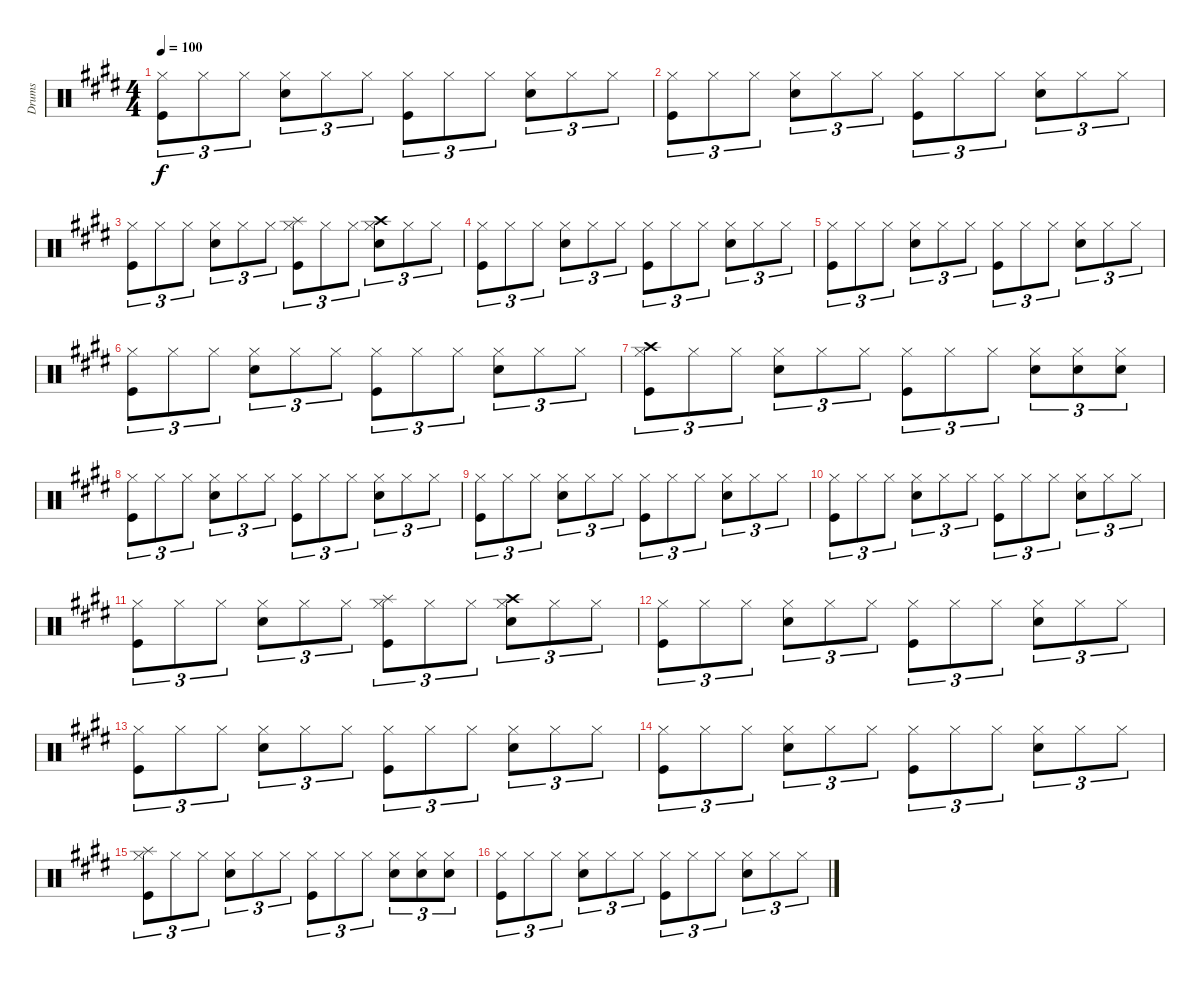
\track ("Drums" "Drums") {instrument percussion}
\staff {score}
\articulation defaults
\ts (4 4)
\tempo 100
\clef neutral
\ks e
("Hi-Hat (closed)" "Kick (hit)").8{tu (3 2) dy f} "Hi-Hat (closed)".8{tu (3 2)} "Hi-Hat (closed)".8{tu (3 2)} ("Hi-Hat (closed)" "Snare (hit) 2").8{tu (3 2)} "Hi-Hat (closed)".8{tu (3 2)} "Hi-Hat (closed)".8{tu (3 2)} ("Hi-Hat (closed)" "Kick (hit)").8{tu (3 2)} "Hi-Hat (closed)".8{tu (3 2)} "Hi-Hat (closed)".8{tu (3 2)} ("Hi-Hat (closed)" "Snare (hit) 2").8{tu (3 2)} "Hi-Hat (closed)".8{tu (3 2)} "Hi-Hat (closed)".8{tu (3 2)} |
\ks c#minor
("Hi-Hat (closed)" "Kick (hit)").8{tu (3 2)} "Hi-Hat (closed)".8{tu (3 2)} "Hi-Hat (closed)".8{tu (3 2)} ("Hi-Hat (closed)" "Snare (hit) 2").8{tu (3 2)} "Hi-Hat (closed)".8{tu (3 2)} "Hi-Hat (closed)".8{tu (3 2)} ("Hi-Hat (closed)" "Kick (hit)").8{tu (3 2)} "Hi-Hat (closed)".8{tu (3 2)} "Hi-Hat (closed)".8{tu (3 2)} ("Hi-Hat (closed)" "Snare (hit) 2").8{tu (3 2)} "Hi-Hat (closed)".8{tu (3 2)} "Hi-Hat (closed)".8{tu (3 2)} |
\ks e
("Hi-Hat (closed)" "Kick (hit)").8{tu (3 2)} "Hi-Hat (closed)".8{tu (3 2)} "Hi-Hat (closed)".8{tu (3 2)} ("Hi-Hat (closed)" "Snare (hit) 2").8{tu (3 2)} "Hi-Hat (closed)".8{tu (3 2)} "Hi-Hat (closed)".8{tu (3 2)} ("Hi-Hat (closed)" "Splash (hit)" "Kick (hit)").8{tu (3 2)} "Hi-Hat (closed)".8{tu (3 2)} "Hi-Hat (closed)".8{tu (3 2)} ("Hi-Hat (closed)" "Crash high (hit)" "Snare (hit) 2").8{tu (3 2)} "Hi-Hat (closed)".8{tu (3 2)} "Hi-Hat (closed)".8{tu (3 2)} |
("Hi-Hat (closed)" "Kick (hit)").8{tu (3 2)} "Hi-Hat (closed)".8{tu (3 2)} "Hi-Hat (closed)".8{tu (3 2)} ("Hi-Hat (closed)" "Snare (hit) 2").8{tu (3 2)} "Hi-Hat (closed)".8{tu (3 2)} "Hi-Hat (closed)".8{tu (3 2)} ("Hi-Hat (closed)" "Kick (hit)").8{tu (3 2)} "Hi-Hat (closed)".8{tu (3 2)} "Hi-Hat (closed)".8{tu (3 2)} ("Hi-Hat (closed)" "Snare (hit) 2").8{tu (3 2)} "Hi-Hat (closed)".8{tu (3 2)} "Hi-Hat (closed)".8{tu (3 2)} |
\ks c#minor
("Hi-Hat (closed)" "Kick (hit)").8{tu (3 2)} "Hi-Hat (closed)".8{tu (3 2)} "Hi-Hat (closed)".8{tu (3 2)} ("Hi-Hat (closed)" "Snare (hit) 2").8{tu (3 2)} "Hi-Hat (closed)".8{tu (3 2)} "Hi-Hat (closed)".8{tu (3 2)} ("Hi-Hat (closed)" "Kick (hit)").8{tu (3 2)} "Hi-Hat (closed)".8{tu (3 2)} "Hi-Hat (closed)".8{tu (3 2)} ("Hi-Hat (closed)" "Snare (hit) 2").8{tu (3 2)} "Hi-Hat (closed)".8{tu (3 2)} "Hi-Hat (closed)".8{tu (3 2)} |
\ks e
("Hi-Hat (closed)" "Kick (hit)").8{tu (3 2)} "Hi-Hat (closed)".8{tu (3 2)} "Hi-Hat (closed)".8{tu (3 2)} ("Hi-Hat (closed)" "Snare (hit) 2").8{tu (3 2)} "Hi-Hat (closed)".8{tu (3 2)} "Hi-Hat (closed)".8{tu (3 2)} ("Hi-Hat (closed)" "Kick (hit)").8{tu (3 2)} "Hi-Hat (closed)".8{tu (3 2)} "Hi-Hat (closed)".8{tu (3 2)} ("Hi-Hat (closed)" "Snare (hit) 2").8{tu (3 2)} "Hi-Hat (closed)".8{tu (3 2)} "Hi-Hat (closed)".8{tu (3 2)} |
("Hi-Hat (closed)" "Crash high (hit)" "Kick (hit)").8{tu (3 2)} "Hi-Hat (closed)".8{tu (3 2)} "Hi-Hat (closed)".8{tu (3 2)} ("Hi-Hat (closed)" "Snare (hit) 2").8{tu (3 2)} "Hi-Hat (closed)".8{tu (3 2)} "Hi-Hat (closed)".8{tu (3 2)} ("Hi-Hat (closed)" "Kick (hit)").8{tu (3 2)} "Hi-Hat (closed)".8{tu (3 2)} "Hi-Hat (closed)".8{tu (3 2)} ("Hi-Hat (closed)" "Snare (hit) 2").8{tu (3 2)} ("Hi-Hat (closed)" "Snare (hit) 2").8{tu (3 2)} ("Hi-Hat (closed)" "Snare (hit) 2").8{tu (3 2)} |
\ks c#minor
("Hi-Hat (closed)" "Kick (hit)").8{tu (3 2)} "Hi-Hat (closed)".8{tu (3 2)} "Hi-Hat (closed)".8{tu (3 2)} ("Hi-Hat (closed)" "Snare (hit) 2").8{tu (3 2)} "Hi-Hat (closed)".8{tu (3 2)} "Hi-Hat (closed)".8{tu (3 2)} ("Hi-Hat (closed)" "Kick (hit)").8{tu (3 2)} "Hi-Hat (closed)".8{tu (3 2)} "Hi-Hat (closed)".8{tu (3 2)} ("Hi-Hat (closed)" "Snare (hit) 2").8{tu (3 2)} "Hi-Hat (closed)".8{tu (3 2)} "Hi-Hat (closed)".8{tu (3 2)} |
("Hi-Hat (closed)" "Kick (hit)").8{tu (3 2)} "Hi-Hat (closed)".8{tu (3 2)} "Hi-Hat (closed)".8{tu (3 2)} ("Hi-Hat (closed)" "Snare (hit) 2").8{tu (3 2)} "Hi-Hat (closed)".8{tu (3 2)} "Hi-Hat (closed)".8{tu (3 2)} ("Hi-Hat (closed)" "Kick (hit)").8{tu (3 2)} "Hi-Hat (closed)".8{tu (3 2)} "Hi-Hat (closed)".8{tu (3 2)} ("Hi-Hat (closed)" "Snare (hit) 2").8{tu (3 2)} "Hi-Hat (closed)".8{tu (3 2)} "Hi-Hat (closed)".8{tu (3 2)} |
\ks e
("Hi-Hat (closed)" "Kick (hit)").8{tu (3 2)} "Hi-Hat (closed)".8{tu (3 2)} "Hi-Hat (closed)".8{tu (3 2)} ("Hi-Hat (closed)" "Snare (hit) 2").8{tu (3 2)} "Hi-Hat (closed)".8{tu (3 2)} "Hi-Hat (closed)".8{tu (3 2)} ("Hi-Hat (closed)" "Kick (hit)").8{tu (3 2)} "Hi-Hat (closed)".8{tu (3 2)} "Hi-Hat (closed)".8{tu (3 2)} ("Hi-Hat (closed)" "Snare (hit) 2").8{tu (3 2)} "Hi-Hat (closed)".8{tu (3 2)} "Hi-Hat (closed)".8{tu (3 2)} |
\ks c#minor
("Hi-Hat (closed)" "Kick (hit)").8{tu (3 2)} "Hi-Hat (closed)".8{tu (3 2)} "Hi-Hat (closed)".8{tu (3 2)} ("Hi-Hat (closed)" "Snare (hit) 2").8{tu (3 2)} "Hi-Hat (closed)".8{tu (3 2)} "Hi-Hat (closed)".8{tu (3 2)} ("Hi-Hat (closed)" "Splash (hit)" "Kick (hit)").8{tu (3 2)} "Hi-Hat (closed)".8{tu (3 2)} "Hi-Hat (closed)".8{tu (3 2)} ("Hi-Hat (closed)" "Crash high (hit)" "Snare (hit) 2").8{tu (3 2)} "Hi-Hat (closed)".8{tu (3 2)} "Hi-Hat (closed)".8{tu (3 2)} |
("Hi-Hat (closed)" "Kick (hit)").8{tu (3 2)} "Hi-Hat (closed)".8{tu (3 2)} "Hi-Hat (closed)".8{tu (3 2)} ("Hi-Hat (closed)" "Snare (hit) 2").8{tu (3 2)} "Hi-Hat (closed)".8{tu (3 2)} "Hi-Hat (closed)".8{tu (3 2)} ("Hi-Hat (closed)" "Kick (hit)").8{tu (3 2)} "Hi-Hat (closed)".8{tu (3 2)} "Hi-Hat (closed)".8{tu (3 2)} ("Hi-Hat (closed)" "Snare (hit) 2").8{tu (3 2)} "Hi-Hat (closed)".8{tu (3 2)} "Hi-Hat (closed)".8{tu (3 2)} |
("Hi-Hat (closed)" "Kick (hit)").8{tu (3 2)} "Hi-Hat (closed)".8{tu (3 2)} "Hi-Hat (closed)".8{tu (3 2)} ("Hi-Hat (closed)" "Snare (hit) 2").8{tu (3 2)} "Hi-Hat (closed)".8{tu (3 2)} "Hi-Hat (closed)".8{tu (3 2)} ("Hi-Hat (closed)" "Kick (hit)").8{tu (3 2)} "Hi-Hat (closed)".8{tu (3 2)} "Hi-Hat (closed)".8{tu (3 2)} ("Hi-Hat (closed)" "Snare (hit) 2").8{tu (3 2)} "Hi-Hat (closed)".8{tu (3 2)} "Hi-Hat (closed)".8{tu (3 2)} |
\ks e
("Hi-Hat (closed)" "Kick (hit)").8{tu (3 2)} "Hi-Hat (closed)".8{tu (3 2)} "Hi-Hat (closed)".8{tu (3 2)} ("Hi-Hat (closed)" "Snare (hit) 2").8{tu (3 2)} "Hi-Hat (closed)".8{tu (3 2)} "Hi-Hat (closed)".8{tu (3 2)} ("Hi-Hat (closed)" "Kick (hit)").8{tu (3 2)} "Hi-Hat (closed)".8{tu (3 2)} "Hi-Hat (closed)".8{tu (3 2)} ("Hi-Hat (closed)" "Snare (hit) 2").8{tu (3 2)} "Hi-Hat (closed)".8{tu (3 2)} "Hi-Hat (closed)".8{tu (3 2)} |
\ks c#minor
("Hi-Hat (closed)" "Splash (hit)" "Kick (hit)").8{tu (3 2)} "Hi-Hat (closed)".8{tu (3 2)} "Hi-Hat (closed)".8{tu (3 2)} ("Hi-Hat (closed)" "Snare (hit) 2").8{tu (3 2)} "Hi-Hat (closed)".8{tu (3 2)} "Hi-Hat (closed)".8{tu (3 2)} ("Hi-Hat (closed)" "Kick (hit)").8{tu (3 2)} "Hi-Hat (closed)".8{tu (3 2)} "Hi-Hat (closed)".8{tu (3 2)} ("Hi-Hat (closed)" "Snare (hit) 2").8{tu (3 2)} ("Hi-Hat (closed)" "Snare (hit) 2").8{tu (3 2)} ("Hi-Hat (closed)" "Snare (hit) 2").8{tu (3 2)} |
("Hi-Hat (closed)" "Kick (hit)").8{tu (3 2)} "Hi-Hat (closed)".8{tu (3 2)} "Hi-Hat (closed)".8{tu (3 2)} ("Hi-Hat (closed)" "Snare (hit) 2").8{tu (3 2)} "Hi-Hat (closed)".8{tu (3 2)} "Hi-Hat (closed)".8{tu (3 2)} ("Hi-Hat (closed)" "Kick (hit)").8{tu (3 2)} "Hi-Hat (closed)".8{tu (3 2)} "Hi-Hat (closed)".8{tu (3 2)} ("Hi-Hat (closed)" "Snare (hit) 2").8{tu (3 2)} "Hi-Hat (closed)".8{tu (3 2)} "Hi-Hat (closed)".8{tu (3 2)}
